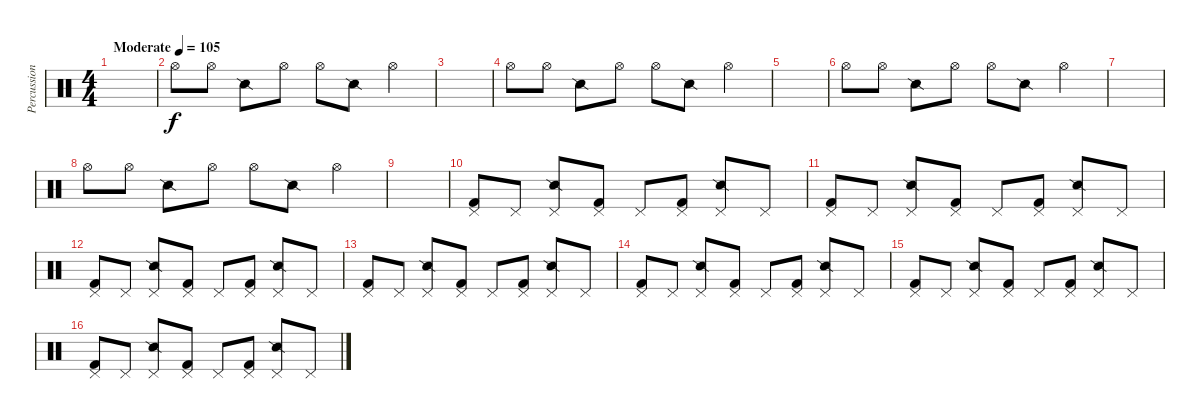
\track ("Percussion" "Percussion") {instrument percussion}
\staff {score}
\articulation defaults
\ts (4 4)
\tempo (105 "Moderate")
\clef neutral
\ks c
|
"Hi-Hat (open)".8 "Hi-Hat (open)".8 "Snare (side stick) 2".8 "Hi-Hat (open)".8 "Hi-Hat (open)".8 "Snare (side stick) 2".8 "Hi-Hat (open)".4 |
|
"Hi-Hat (open)".8 "Hi-Hat (open)".8 "Snare (side stick) 2".8 "Hi-Hat (open)".8 "Hi-Hat (open)".8 "Snare (side stick) 2".8 "Hi-Hat (open)".4 |
|
"Hi-Hat (open)".8 "Hi-Hat (open)".8 "Snare (side stick) 2".8 "Hi-Hat (open)".8 "Hi-Hat (open)".8 "Snare (side stick) 2".8 "Hi-Hat (open)".4 |
|
"Hi-Hat (open)".8 "Hi-Hat (open)".8 "Snare (side stick) 2".8 "Hi-Hat (open)".8 "Hi-Hat (open)".8 "Snare (side stick) 2".8 "Hi-Hat (open)".4 |
|
("Pedal Hi-Hat (hit)" "Kick (hit) 2").8 "Pedal Hi-Hat (hit)".8 ("Pedal Hi-Hat (hit)" "Snare (side stick) 2").8 ("Pedal Hi-Hat (hit)" "Kick (hit) 2").8 "Pedal Hi-Hat (hit)".8 ("Pedal Hi-Hat (hit)" "Kick (hit) 2").8 ("Pedal Hi-Hat (hit)" "Snare (side stick) 2").8 "Pedal Hi-Hat (hit)".8 |
("Pedal Hi-Hat (hit)" "Kick (hit) 2").8 "Pedal Hi-Hat (hit)".8 ("Pedal Hi-Hat (hit)" "Snare (side stick) 2").8 ("Pedal Hi-Hat (hit)" "Kick (hit) 2").8 "Pedal Hi-Hat (hit)".8 ("Pedal Hi-Hat (hit)" "Kick (hit) 2").8 ("Pedal Hi-Hat (hit)" "Snare (side stick) 2").8 "Pedal Hi-Hat (hit)".8 |
("Pedal Hi-Hat (hit)" "Kick (hit) 2").8 "Pedal Hi-Hat (hit)".8 ("Pedal Hi-Hat (hit)" "Snare (side stick) 2").8 ("Pedal Hi-Hat (hit)" "Kick (hit) 2").8 "Pedal Hi-Hat (hit)".8 ("Pedal Hi-Hat (hit)" "Kick (hit) 2").8 ("Pedal Hi-Hat (hit)" "Snare (side stick) 2").8 "Pedal Hi-Hat (hit)".8 |
("Pedal Hi-Hat (hit)" "Kick (hit) 2").8 "Pedal Hi-Hat (hit)".8 ("Pedal Hi-Hat (hit)" "Snare (side stick) 2").8 ("Pedal Hi-Hat (hit)" "Kick (hit) 2").8 "Pedal Hi-Hat (hit)".8 ("Pedal Hi-Hat (hit)" "Kick (hit) 2").8 ("Pedal Hi-Hat (hit)" "Snare (side stick) 2").8 "Pedal Hi-Hat (hit)".8 |
("Pedal Hi-Hat (hit)" "Kick (hit) 2").8 "Pedal Hi-Hat (hit)".8 ("Pedal Hi-Hat (hit)" "Snare (side stick) 2").8 ("Pedal Hi-Hat (hit)" "Kick (hit) 2").8 "Pedal Hi-Hat (hit)".8 ("Pedal Hi-Hat (hit)" "Kick (hit) 2").8 ("Pedal Hi-Hat (hit)" "Snare (side stick) 2").8 "Pedal Hi-Hat (hit)".8 |
("Pedal Hi-Hat (hit)" "Kick (hit) 2").8 "Pedal Hi-Hat (hit)".8 ("Pedal Hi-Hat (hit)" "Snare (side stick) 2").8 ("Pedal Hi-Hat (hit)" "Kick (hit) 2").8 "Pedal Hi-Hat (hit)".8 ("Pedal Hi-Hat (hit)" "Kick (hit) 2").8 ("Pedal Hi-Hat (hit)" "Snare (side stick) 2").8 "Pedal Hi-Hat (hit)".8 |
("Pedal Hi-Hat (hit)" "Kick (hit) 2").8 "Pedal Hi-Hat (hit)".8 ("Pedal Hi-Hat (hit)" "Snare (side stick) 2").8 ("Pedal Hi-Hat (hit)" "Kick (hit) 2").8 "Pedal Hi-Hat (hit)".8 ("Pedal Hi-Hat (hit)" "Kick (hit) 2").8 ("Pedal Hi-Hat (hit)" "Snare (side stick) 2").8 "Pedal Hi-Hat (hit)".8
